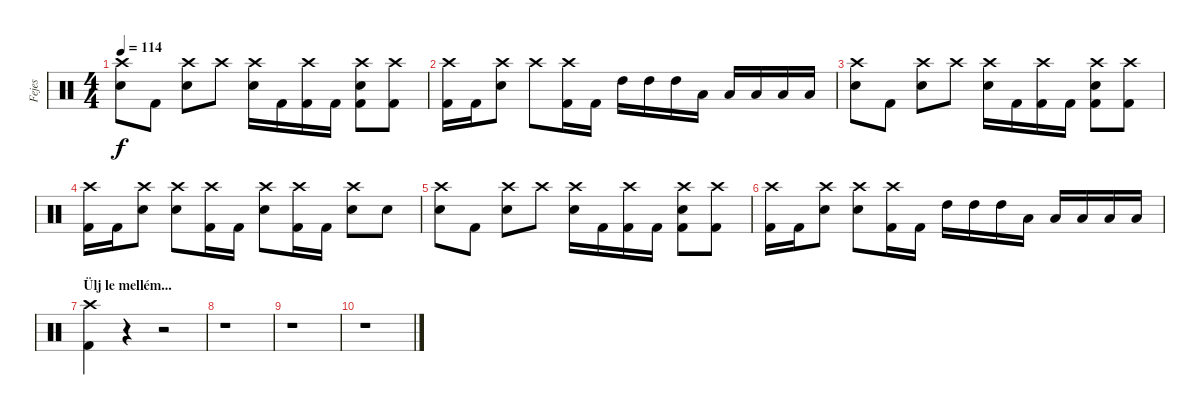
\track ("Fejes" "Fejes") {instrument percussion}
\staff {score}
\articulation defaults
\ts (4 4)
\tempo 114
\clef neutral
\ks c
("Crash high (hit)" "Electric Snare (hit)").8{dy f} "Kick (hit) 2".8 ("Crash high (hit)" "Electric Snare (hit)").8 "Crash high (hit)".8 ("Crash high (hit)" "Electric Snare (hit)").16 "Kick (hit) 2".16 ("Crash high (hit)" "Kick (hit) 2").16 "Kick (hit) 2".16 ("Crash high (hit)" "Electric Snare (hit)" "Kick (hit) 2").8 ("Crash high (hit)" "Kick (hit) 2").8 |
("Crash high (hit)" "Kick (hit) 2").16 "Kick (hit) 2".16 ("Crash high (hit)" "Electric Snare (hit)").8 "Crash high (hit)".8 ("Crash high (hit)" "Kick (hit) 2").16 "Kick (hit) 2".16 "High Tom (hit)".16 "High Tom (hit)".16 "High Tom (hit)".16 "Low Tom (hit)".16 "Low Tom (hit)".16 "Low Tom (hit)".16 "Low Tom (hit)".16 "Low Tom (hit)".16 |
("Crash high (hit)" "Electric Snare (hit)").8 "Kick (hit) 2".8 ("Crash high (hit)" "Electric Snare (hit)").8 "Crash high (hit)".8 ("Crash high (hit)" "Electric Snare (hit)").16 "Kick (hit) 2".16 ("Crash high (hit)" "Kick (hit) 2").16 "Kick (hit) 2".16 ("Crash high (hit)" "Electric Snare (hit)" "Kick (hit) 2").8 ("Crash high (hit)" "Kick (hit) 2").8 |
("Crash high (hit)" "Kick (hit) 2").16 "Kick (hit) 2".16 ("Crash high (hit)" "Electric Snare (hit)").8 ("Crash high (hit)" "Electric Snare (hit)").8 ("Crash high (hit)" "Kick (hit) 2").16 "Kick (hit) 2".16 ("Crash high (hit)" "Electric Snare (hit)").8 ("Crash high (hit)" "Kick (hit) 2").16 "Kick (hit) 2".16 ("Crash high (hit)" "Electric Snare (hit)").8 "Electric Snare (hit)".8 |
("Crash high (hit)" "Electric Snare (hit)").8 "Kick (hit) 2".8 ("Crash high (hit)" "Electric Snare (hit)").8 "Crash high (hit)".8 ("Crash high (hit)" "Electric Snare (hit)").16 "Kick (hit) 2".16 ("Crash high (hit)" "Kick (hit) 2").16 "Kick (hit) 2".16 ("Crash high (hit)" "Electric Snare (hit)" "Kick (hit) 2").8 ("Crash high (hit)" "Kick (hit) 2").8 |
("Crash high (hit)" "Kick (hit) 2").16 "Kick (hit) 2".16 ("Crash high (hit)" "Electric Snare (hit)").8 ("Crash high (hit)" "Electric Snare (hit)").8 ("Crash high (hit)" "Kick (hit) 2").16 "Kick (hit) 2".16 "High Tom (hit)".16 "High Tom (hit)".16 "High Tom (hit)".16 "Low Tom (hit)".16 "Low Tom (hit)".16 "Low Tom (hit)".16 "Low Tom (hit)".16 "Low Tom (hit)".16 |
\section ("" "Ülj le mellém...")
("Crash high (hit)" "Kick (hit) 2").4 r.4 r.2 |
r.1 |
r.1 |
r.1
